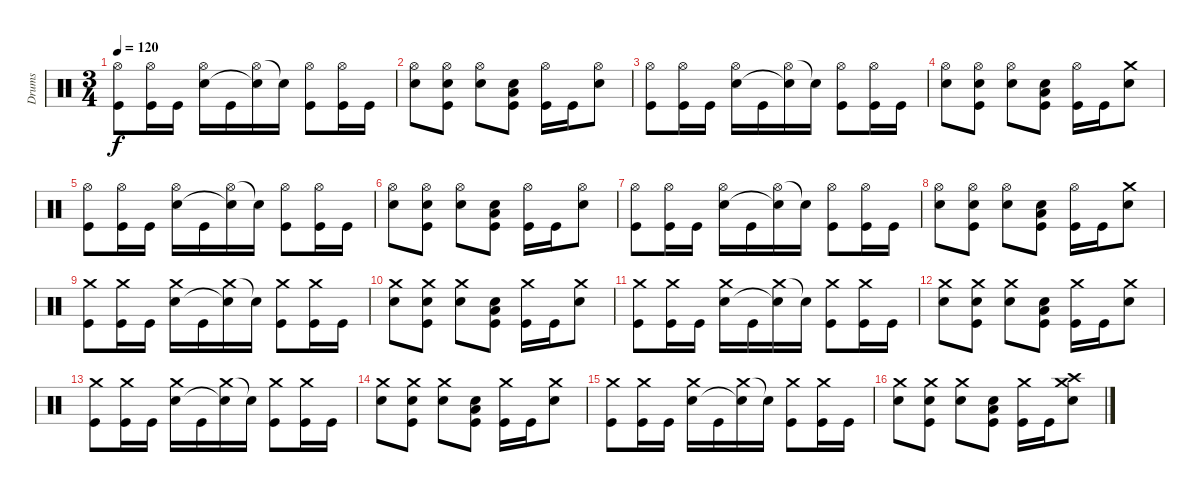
\track ("Drums" "Drums") {instrument percussion}
\staff {score}
\articulation defaults
\ts (3 4)
\tempo 120
\clef neutral
\ks c
("Hi-Hat (open)" "Kick (hit)").8{dy f volume 16} ("Hi-Hat (open)" "Kick (hit)").16 "Kick (hit)".16 ("Hi-Hat (open)" "Snare (hit) 2").16 "Kick (hit)".16 ("Hi-Hat (open)" "Snare (hit)"{t}).16 "Snare (hit)"{t}.16 ("Hi-Hat (open)" "Kick (hit)").8 ("Hi-Hat (open)" "Kick (hit)").16 "Kick (hit)".16 |
("Hi-Hat (open)" "Snare (hit) 2").8 ("Hi-Hat (open)" "Snare (hit) 2" "Kick (hit)").8 ("Hi-Hat (open)" "Snare (hit) 2").8 ("Low Floor Tom (hit)" "Snare (hit) 2" "Kick (hit)").8 ("Hi-Hat (open)" "Kick (hit)").16 "Kick (hit)".16 ("Hi-Hat (open)" "Snare (hit) 2").8 |
("Hi-Hat (open)" "Kick (hit)").8 ("Hi-Hat (open)" "Kick (hit)").16 "Kick (hit)".16 ("Hi-Hat (open)" "Snare (hit) 2").16 "Kick (hit)".16 ("Hi-Hat (open)" "Snare (hit)"{t}).16 "Snare (hit)"{t}.16 ("Hi-Hat (open)" "Kick (hit)").8 ("Hi-Hat (open)" "Kick (hit)").16 "Kick (hit)".16 |
("Hi-Hat (open)" "Snare (hit) 2").8 ("Hi-Hat (open)" "Snare (hit) 2" "Kick (hit)").8 ("Hi-Hat (open)" "Snare (hit) 2").8 ("Low Floor Tom (hit)" "Snare (hit) 2" "Kick (hit)").8 ("Hi-Hat (open)" "Kick (hit)").16 "Kick (hit)".16 ("Crash medium (hit)" "Snare (hit) 2").8 |
("Hi-Hat (open)" "Kick (hit)").8{volume 16} ("Hi-Hat (open)" "Kick (hit)").16 "Kick (hit)".16 ("Hi-Hat (open)" "Snare (hit) 2").16 "Kick (hit)".16 ("Hi-Hat (open)" "Snare (hit)"{t}).16 "Snare (hit)"{t}.16 ("Hi-Hat (open)" "Kick (hit)").8 ("Hi-Hat (open)" "Kick (hit)").16 "Kick (hit)".16 |
("Hi-Hat (open)" "Snare (hit) 2").8 ("Hi-Hat (open)" "Snare (hit) 2" "Kick (hit)").8 ("Hi-Hat (open)" "Snare (hit) 2").8 ("Low Floor Tom (hit)" "Snare (hit) 2" "Kick (hit)").8 ("Hi-Hat (open)" "Kick (hit)").16 "Kick (hit)".16 ("Hi-Hat (open)" "Snare (hit) 2").8 |
("Hi-Hat (open)" "Kick (hit)").8 ("Hi-Hat (open)" "Kick (hit)").16 "Kick (hit)".16 ("Hi-Hat (open)" "Snare (hit) 2").16 "Kick (hit)".16 ("Hi-Hat (open)" "Snare (hit)"{t}).16 "Snare (hit)"{t}.16 ("Hi-Hat (open)" "Kick (hit)").8 ("Hi-Hat (open)" "Kick (hit)").16 "Kick (hit)".16 |
("Hi-Hat (open)" "Snare (hit) 2").8 ("Hi-Hat (open)" "Snare (hit) 2" "Kick (hit)").8 ("Hi-Hat (open)" "Snare (hit) 2").8 ("Low Floor Tom (hit)" "Snare (hit) 2" "Kick (hit)").8 ("Hi-Hat (open)" "Kick (hit)").16 "Kick (hit)".16 ("Crash medium (hit)" "Snare (hit) 2").8 |
("Crash medium (hit)" "Kick (hit)").8{volume 16} ("Crash medium (hit)" "Kick (hit)").16 "Kick (hit)".16 ("Crash medium (hit)" "Snare (hit) 2").16 "Kick (hit)".16 ("Crash medium (hit)" "Snare (hit)"{t}).16 "Snare (hit)"{t}.16 ("Crash medium (hit)" "Kick (hit)").8 ("Crash medium (hit)" "Kick (hit)").16 "Kick (hit)".16 |
("Crash medium (hit)" "Snare (hit) 2").8 ("Crash medium (hit)" "Snare (hit) 2" "Kick (hit)").8 ("Crash medium (hit)" "Snare (hit) 2").8 ("Low Floor Tom (hit)" "Snare (hit) 2" "Kick (hit)").8 ("Crash medium (hit)" "Kick (hit)").16 "Kick (hit)".16 ("Crash medium (hit)" "Snare (hit) 2").8 |
("Crash medium (hit)" "Kick (hit)").8 ("Crash medium (hit)" "Kick (hit)").16 "Kick (hit)".16 ("Crash medium (hit)" "Snare (hit) 2").16 "Kick (hit)".16 ("Crash medium (hit)" "Snare (hit)"{t}).16 "Snare (hit)"{t}.16 ("Crash medium (hit)" "Kick (hit)").8 ("Crash medium (hit)" "Kick (hit)").16 "Kick (hit)".16 |
("Crash medium (hit)" "Snare (hit) 2").8 ("Crash medium (hit)" "Snare (hit) 2" "Kick (hit)").8 ("Crash medium (hit)" "Snare (hit) 2").8 ("Low Floor Tom (hit)" "Snare (hit) 2" "Kick (hit)").8 ("Crash medium (hit)" "Kick (hit)").16 "Kick (hit)".16 ("Crash medium (hit)" "Snare (hit) 2").8 |
("Crash medium (hit)" "Kick (hit)").8{volume 16} ("Crash medium (hit)" "Kick (hit)").16 "Kick (hit)".16 ("Crash medium (hit)" "Snare (hit) 2").16 "Kick (hit)".16 ("Crash medium (hit)" "Snare (hit)"{t}).16 "Snare (hit)"{t}.16 ("Crash medium (hit)" "Kick (hit)").8 ("Crash medium (hit)" "Kick (hit)").16 "Kick (hit)".16 |
("Crash medium (hit)" "Snare (hit) 2").8 ("Crash medium (hit)" "Snare (hit) 2" "Kick (hit)").8 ("Crash medium (hit)" "Snare (hit) 2").8 ("Low Floor Tom (hit)" "Snare (hit) 2" "Kick (hit)").8 ("Crash medium (hit)" "Kick (hit)").16 "Kick (hit)".16 ("Crash medium (hit)" "Snare (hit) 2").8 |
("Crash medium (hit)" "Kick (hit)").8 ("Crash medium (hit)" "Kick (hit)").16 "Kick (hit)".16 ("Crash medium (hit)" "Snare (hit) 2").16 "Kick (hit)".16 ("Crash medium (hit)" "Snare (hit)"{t}).16 "Snare (hit)"{t}.16 ("Crash medium (hit)" "Kick (hit)").8 ("Crash medium (hit)" "Kick (hit)").16 "Kick (hit)".16 |
("Crash medium (hit)" "Snare (hit) 2").8 ("Crash medium (hit)" "Snare (hit) 2" "Kick (hit)").8 ("Crash medium (hit)" "Snare (hit) 2").8 ("Low Floor Tom (hit)" "Snare (hit) 2" "Kick (hit)").8 ("Crash medium (hit)" "Kick (hit)").16 "Kick (hit)".16 ("Crash high (hit)" "Crash medium (hit)" "Snare (hit) 2").8
